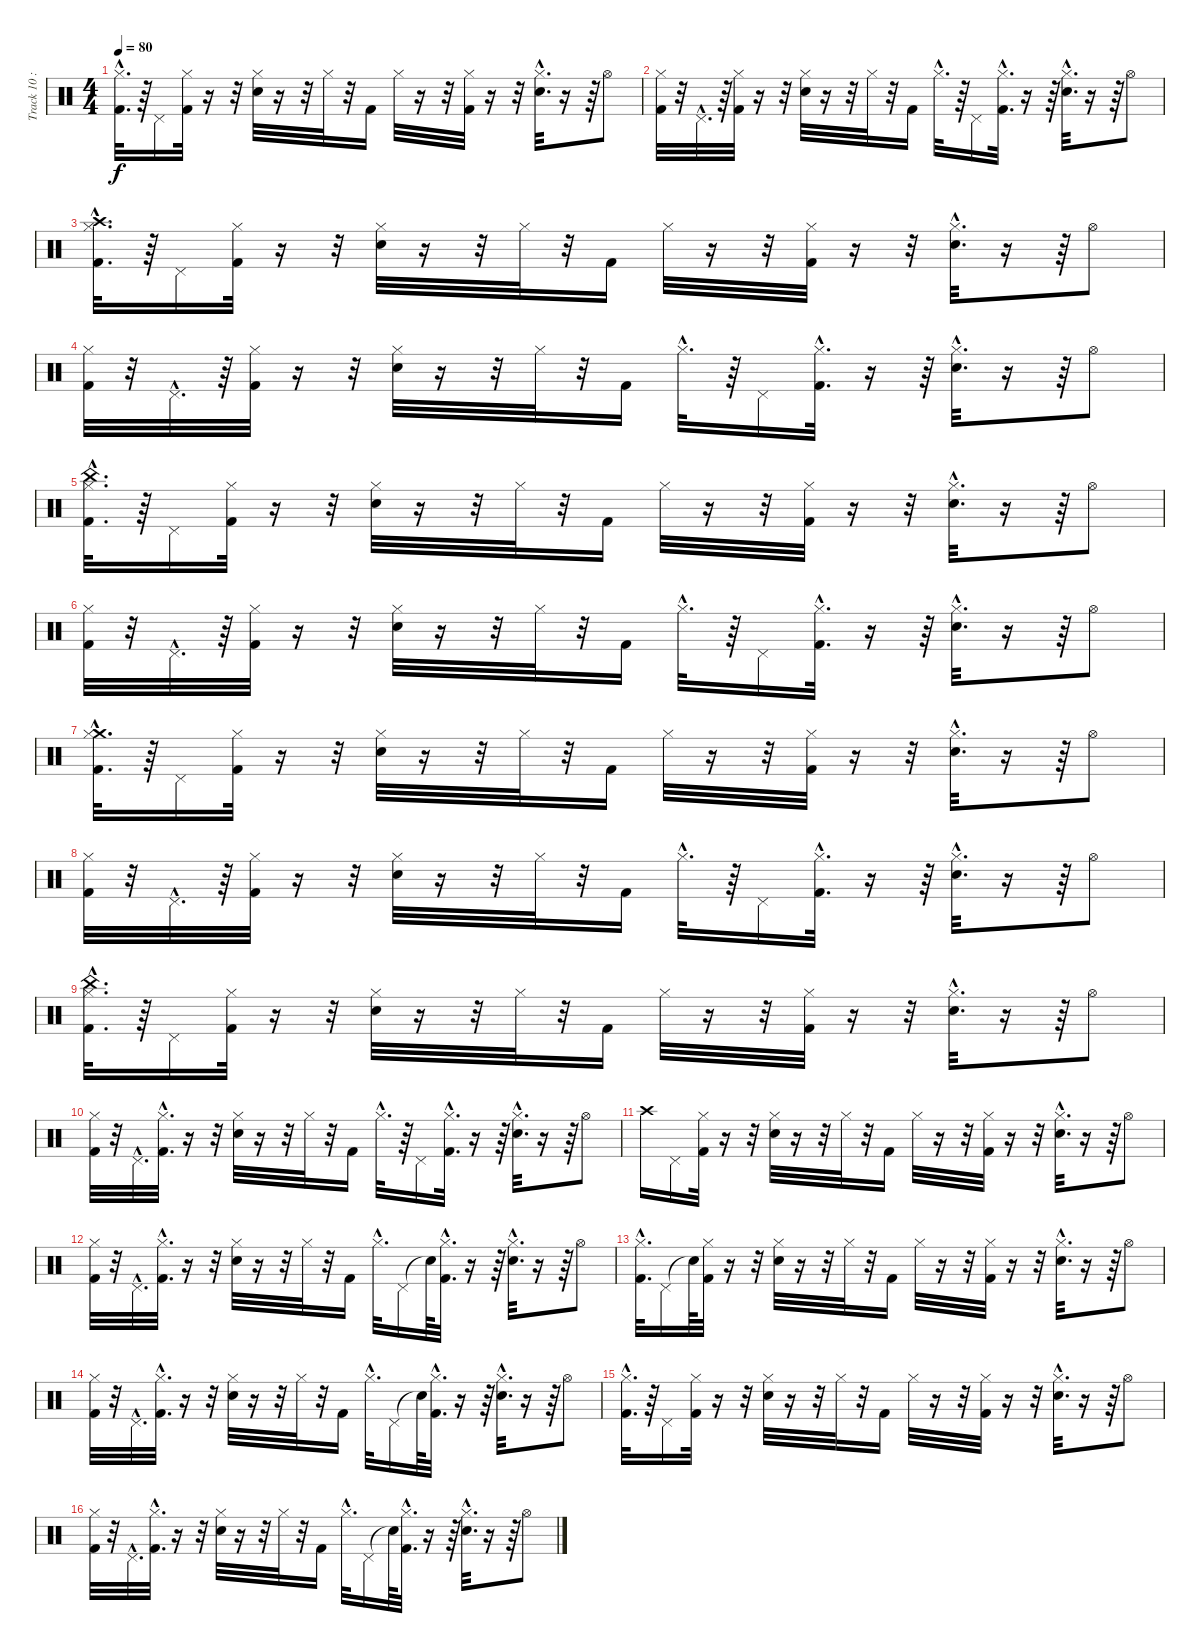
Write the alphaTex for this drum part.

\track ("Track 10 : unspecified" "Track 10 :") {instrument percussion}
\staff {score}
\articulation defaults
\ts (4 4)
\tempo 80
\clef neutral
\ks c
("Hi-Hat (closed)"{hac} "Kick (hit) 2"{hac}).32{d dy f} r.64 "Pedal Hi-Hat (hit)".16 ("Hi-Hat (closed)" "Kick (hit) 2").32 r.16 r.32 ("Snare (hit) 2" "Hi-Hat (closed)").32 r.16 r.32 "Hi-Hat (closed)".32 r.32 "Kick (hit) 2".16 "Hi-Hat (closed)".32 r.16 r.32 ("Kick (hit) 2" "Hi-Hat (closed)").32 r.16 r.32 ("Hi-Hat (closed)"{hac} "Snare (hit) 2"{hac}).32{d} r.16 r.64 "Hi-Hat (open)".8 |
("Kick (hit) 2" "Hi-Hat (closed)").32 r.32 "Pedal Hi-Hat (hit)"{hac}.32{d} r.64 ("Kick (hit) 2" "Hi-Hat (closed)").32 r.16 r.32 ("Snare (hit) 2" "Hi-Hat (closed)").32 r.16 r.32 "Hi-Hat (closed)".32 r.32 "Kick (hit) 2".16 "Hi-Hat (closed)"{hac}.32{d} r.64 "Pedal Hi-Hat (hit)".16 ("Kick (hit) 2"{hac} "Hi-Hat (closed)"{hac}).32{d} r.16 r.64 ("Hi-Hat (closed)"{hac} "Snare (hit) 2"{hac}).32{d} r.16 r.64 "Hi-Hat (open)".8 |
("Crash high (hit)"{hac} "Kick (hit) 2"{hac} "Hi-Hat (closed)"{hac}).32{d} r.64 "Pedal Hi-Hat (hit)".16 ("Kick (hit) 2" "Hi-Hat (closed)").32 r.16 r.32 ("Hi-Hat (closed)" "Snare (hit) 2").32 r.16 r.32 "Hi-Hat (closed)".32 r.32 "Kick (hit) 2".16 "Hi-Hat (closed)".32 r.16 r.32 ("Hi-Hat (closed)" "Kick (hit) 2").32 r.16 r.32 ("Hi-Hat (closed)"{hac} "Snare (hit) 2"{hac}).32{d} r.16 r.64 "Hi-Hat (open)".8 |
("Kick (hit) 2" "Hi-Hat (closed)").32 r.32 "Pedal Hi-Hat (hit)"{hac}.32{d} r.64 ("Hi-Hat (closed)" "Kick (hit) 2").32 r.16 r.32 ("Snare (hit) 2" "Hi-Hat (closed)").32 r.16 r.32 "Hi-Hat (closed)".32 r.32 "Kick (hit) 2".16 "Hi-Hat (closed)"{hac}.32{d} r.64 "Pedal Hi-Hat (hit)".16 ("Hi-Hat (closed)"{hac} "Kick (hit) 2"{hac}).32{d} r.16 r.64 ("Snare (hit) 2"{hac} "Hi-Hat (closed)"{hac}).32{d} r.16 r.64 "Hi-Hat (open)".8 |
("Hi-Hat (closed)"{hac} "China (hit)"{hac} "Kick (hit) 2"{hac}).32{d} r.64 "Pedal Hi-Hat (hit)".16 ("Hi-Hat (closed)" "Kick (hit) 2").32 r.16 r.32 ("Hi-Hat (closed)" "Snare (hit) 2").32 r.16 r.32 "Hi-Hat (closed)".32 r.32 "Kick (hit) 2".16 "Hi-Hat (closed)".32 r.16 r.32 ("Hi-Hat (closed)" "Kick (hit) 2").32 r.16 r.32 ("Hi-Hat (closed)"{hac} "Snare (hit) 2"{hac}).32{d} r.16 r.64 "Hi-Hat (open)".8 |
("Kick (hit) 2" "Hi-Hat (closed)").32 r.32 "Pedal Hi-Hat (hit)"{hac}.32{d} r.64 ("Kick (hit) 2" "Hi-Hat (closed)").32 r.16 r.32 ("Hi-Hat (closed)" "Snare (hit) 2").32 r.16 r.32 "Hi-Hat (closed)".32 r.32 "Kick (hit) 2".16 "Hi-Hat (closed)"{hac}.32{d} r.64 "Pedal Hi-Hat (hit)".16 ("Kick (hit) 2"{hac} "Hi-Hat (closed)"{hac}).32{d} r.16 r.64 ("Hi-Hat (closed)"{hac} "Snare (hit) 2"{hac}).32{d} r.16 r.64 "Hi-Hat (open)".8 |
("Crash medium (hit)"{hac} "Hi-Hat (closed)"{hac} "Kick (hit) 2"{hac}).32{d} r.64 "Pedal Hi-Hat (hit)".16 ("Hi-Hat (closed)" "Kick (hit) 2").32 r.16 r.32 ("Hi-Hat (closed)" "Snare (hit) 2").32 r.16 r.32 "Hi-Hat (closed)".32 r.32 "Kick (hit) 2".16 "Hi-Hat (closed)".32 r.16 r.32 ("Kick (hit) 2" "Hi-Hat (closed)").32 r.16 r.32 ("Snare (hit) 2"{hac} "Hi-Hat (closed)"{hac}).32{d} r.16 r.64 "Hi-Hat (open)".8 |
("Hi-Hat (closed)" "Kick (hit) 2").32 r.32 "Pedal Hi-Hat (hit)"{hac}.32{d} r.64 ("Kick (hit) 2" "Hi-Hat (closed)").32 r.16 r.32 ("Hi-Hat (closed)" "Snare (hit) 2").32 r.16 r.32 "Hi-Hat (closed)".32 r.32 "Kick (hit) 2".16 "Hi-Hat (closed)"{hac}.32{d} r.64 "Pedal Hi-Hat (hit)".16 ("Hi-Hat (closed)"{hac} "Kick (hit) 2"{hac}).32{d} r.16 r.64 ("Snare (hit) 2"{hac} "Hi-Hat (closed)"{hac}).32{d} r.16 r.64 "Hi-Hat (open)".8 |
("Hi-Hat (closed)"{hac} "Kick (hit) 2"{hac} "China (hit)"{hac}).32{d} r.64 "Pedal Hi-Hat (hit)".16 ("Kick (hit) 2" "Hi-Hat (closed)").32 r.16 r.32 ("Hi-Hat (closed)" "Snare (hit) 2").32 r.16 r.32 "Hi-Hat (closed)".32 r.32 "Kick (hit) 2".16 "Hi-Hat (closed)".32 r.16 r.32 ("Kick (hit) 2" "Hi-Hat (closed)").32 r.16 r.32 ("Snare (hit) 2"{hac} "Hi-Hat (closed)"{hac}).32{d} r.16 r.64 "Hi-Hat (open)".8 |
("Hi-Hat (closed)" "Kick (hit) 2").32 r.32 "Pedal Hi-Hat (hit)"{hac}.32{d} ("Hi-Hat (closed)"{hac} "Kick (hit) 2"{hac}).32{d} r.16 r.32 ("Hi-Hat (closed)" "Snare (hit) 2").32 r.16 r.32 "Hi-Hat (closed)".32 r.32 "Kick (hit) 2".16 "Hi-Hat (closed)"{hac}.32{d} r.64 "Pedal Hi-Hat (hit)".16 ("Hi-Hat (closed)"{hac} "Kick (hit) 2"{hac}).32{d} r.16 r.64 ("Snare (hit) 2"{hac} "Hi-Hat (closed)"{hac}).32{d} r.16 r.64 "Hi-Hat (open)".8 |
"Crash high (hit)".16 "Pedal Hi-Hat (hit)".16 ("Hi-Hat (closed)" "Kick (hit) 2").32 r.16 r.32 ("Hi-Hat (closed)" "Snare (hit) 2").32 r.16 r.32 "Hi-Hat (closed)".32 r.32 "Kick (hit) 2".16 "Hi-Hat (closed)".32 r.16 r.32 ("Kick (hit) 2" "Hi-Hat (closed)").32 r.16 r.32 ("Hi-Hat (closed)"{hac} "Snare (hit) 2"{hac}).32{d} r.16 r.64 "Hi-Hat (open)".8 |
("Kick (hit) 2" "Hi-Hat (closed)").32 r.32 "Pedal Hi-Hat (hit)"{hac}.32{d} ("Kick (hit) 2"{hac} "Hi-Hat (closed)"{hac}).32{d} r.16 r.32 ("Snare (hit) 2" "Hi-Hat (closed)").32 r.16 r.32 "Hi-Hat (closed)".32 r.32 "Kick (hit) 2".16 "Hi-Hat (closed)"{hac}.32{d} "Pedal Hi-Hat (hit)".16 "Snare (hit)"{t}.64 ("Kick (hit) 2"{hac} "Hi-Hat (closed)"{hac}).32{d} r.16 r.64 ("Hi-Hat (closed)"{hac} "Snare (hit) 2"{hac}).32{d} r.16 r.64 "Hi-Hat (open)".8 |
("Kick (hit) 2"{hac} "Hi-Hat (closed)"{hac}).32{d} "Pedal Hi-Hat (hit)".16 "Snare (hit)"{t}.64 ("Kick (hit) 2" "Hi-Hat (closed)").32 r.16 r.32 ("Hi-Hat (closed)" "Snare (hit) 2").32 r.16 r.32 "Hi-Hat (closed)".32 r.32 "Kick (hit) 2".16 "Hi-Hat (closed)".32 r.16 r.32 ("Hi-Hat (closed)" "Kick (hit) 2").32 r.16 r.32 ("Snare (hit) 2"{hac} "Hi-Hat (closed)"{hac}).32{d} r.16 r.64 "Hi-Hat (open)".8 |
("Kick (hit) 2" "Hi-Hat (closed)").32 r.32 "Pedal Hi-Hat (hit)"{hac}.32{d} ("Hi-Hat (closed)"{hac} "Kick (hit) 2"{hac}).32{d} r.16 r.32 ("Hi-Hat (closed)" "Snare (hit) 2").32 r.16 r.32 "Hi-Hat (closed)".32 r.32 "Kick (hit) 2".16 "Hi-Hat (closed)"{hac}.32{d} "Pedal Hi-Hat (hit)".16 "Snare (hit)"{t}.64 ("Kick (hit) 2"{hac} "Hi-Hat (closed)"{hac}).32{d} r.16 r.64 ("Snare (hit) 2"{hac} "Hi-Hat (closed)"{hac}).32{d} r.16 r.64 "Hi-Hat (open)".8 |
("Hi-Hat (closed)"{hac} "Kick (hit) 2"{hac}).32{d} r.64 "Pedal Hi-Hat (hit)".16 ("Kick (hit) 2" "Hi-Hat (closed)").32 r.16 r.32 ("Hi-Hat (closed)" "Snare (hit) 2").32 r.16 r.32 "Hi-Hat (closed)".32 r.32 "Kick (hit) 2".16 "Hi-Hat (closed)".32 r.16 r.32 ("Kick (hit) 2" "Hi-Hat (closed)").32 r.16 r.32 ("Snare (hit) 2"{hac} "Hi-Hat (closed)"{hac}).32{d} r.16 r.64 "Hi-Hat (open)".8 |
("Kick (hit) 2" "Hi-Hat (closed)").32 r.32 "Pedal Hi-Hat (hit)"{hac}.32{d} ("Kick (hit) 2"{hac} "Hi-Hat (closed)"{hac}).32{d} r.16 r.32 ("Snare (hit) 2" "Hi-Hat (closed)").32 r.16 r.32 "Hi-Hat (closed)".32 r.32 "Kick (hit) 2".16 "Hi-Hat (closed)"{hac}.32{d} "Pedal Hi-Hat (hit)".16 "Snare (hit)"{t}.64 ("Kick (hit) 2"{hac} "Hi-Hat (closed)"{hac}).32{d} r.16 r.64 ("Snare (hit) 2"{hac} "Hi-Hat (closed)"{hac}).32{d} r.16 r.64 "Hi-Hat (open)".8
